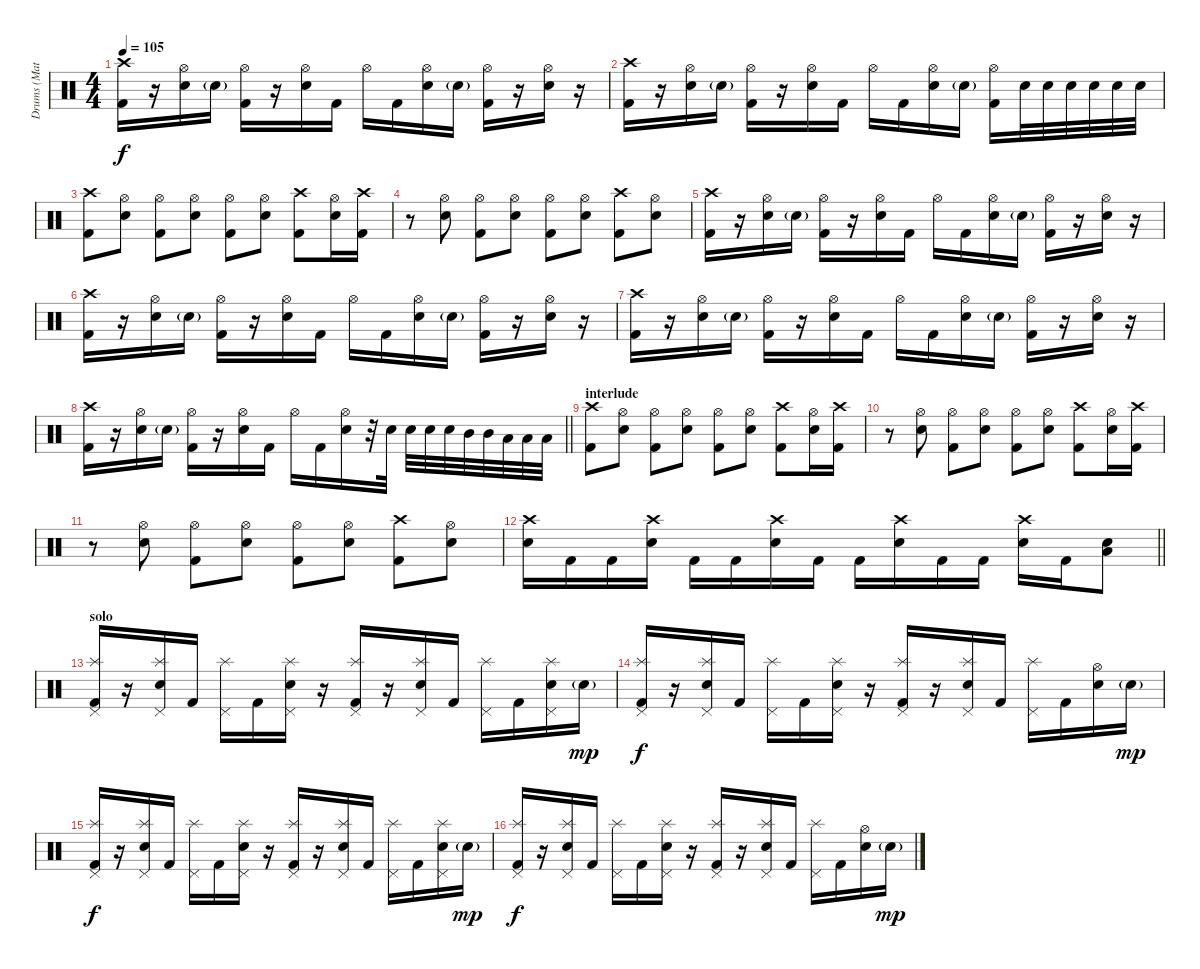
\track ("Drums (Matt Sorum)" "Drums (Mat") {instrument percussion}
\staff {score}
\articulation defaults
\ts (4 4)
\tempo 105
\clef neutral
\ks c
("Crash high (hit)" "Kick (hit) 2").16{dy f} r.16 ("Hi-Hat (open)" "Electric Snare (hit)").16 "Electric Snare (hit)"{g}.16 ("Hi-Hat (open)" "Kick (hit) 2").16 r.16 ("Hi-Hat (open)" "Electric Snare (hit)").16 "Kick (hit) 2".16 "Hi-Hat (open)".16 "Kick (hit) 2".16 ("Hi-Hat (open)" "Electric Snare (hit)").16 "Electric Snare (hit)"{g}.16 ("Hi-Hat (open)" "Kick (hit) 2").16 r.16 ("Hi-Hat (open)" "Electric Snare (hit)").16 r.16 |
("Crash high (hit)" "Kick (hit) 2").16 r.16 ("Hi-Hat (open)" "Electric Snare (hit)").16 "Electric Snare (hit)"{g}.16 ("Hi-Hat (open)" "Kick (hit) 2").16 r.16 ("Hi-Hat (open)" "Electric Snare (hit)").16 "Kick (hit) 2".16 "Hi-Hat (open)".16 "Kick (hit) 2".16 ("Hi-Hat (open)" "Electric Snare (hit)").16 "Electric Snare (hit)"{g}.16 ("Hi-Hat (open)" "Kick (hit) 2").16 "Electric Snare (hit)".32 "Electric Snare (hit)".32 "Electric Snare (hit)".32 "Electric Snare (hit)".32 "Electric Snare (hit)".32 "Electric Snare (hit)".32 |
("Crash high (hit)" "Kick (hit) 2").8 ("Hi-Hat (open)" "Electric Snare (hit)").8 ("Hi-Hat (open)" "Kick (hit) 2").8 ("Hi-Hat (open)" "Electric Snare (hit)").8 ("Hi-Hat (open)" "Kick (hit) 2").8 ("Hi-Hat (open)" "Electric Snare (hit)").8 ("Crash high (hit)" "Kick (hit) 2").8 ("Hi-Hat (open)" "Electric Snare (hit)").16 ("Crash high (hit)" "Kick (hit) 2").16 |
r.8 ("Hi-Hat (open)" "Electric Snare (hit)").8 ("Hi-Hat (open)" "Kick (hit) 2").8 ("Hi-Hat (open)" "Electric Snare (hit)").8 ("Hi-Hat (open)" "Kick (hit) 2").8 ("Hi-Hat (open)" "Electric Snare (hit)").8 ("Crash high (hit)" "Kick (hit) 2").8 ("Hi-Hat (open)" "Electric Snare (hit)").8 |
("Crash high (hit)" "Kick (hit) 2").16 r.16 ("Hi-Hat (open)" "Electric Snare (hit)").16 "Electric Snare (hit)"{g}.16 ("Hi-Hat (open)" "Kick (hit) 2").16 r.16 ("Hi-Hat (open)" "Electric Snare (hit)").16 "Kick (hit) 2".16 "Hi-Hat (open)".16 "Kick (hit) 2".16 ("Hi-Hat (open)" "Electric Snare (hit)").16 "Electric Snare (hit)"{g}.16 ("Hi-Hat (open)" "Kick (hit) 2").16 r.16 ("Hi-Hat (open)" "Electric Snare (hit)").16 r.16 |
("Crash high (hit)" "Kick (hit) 2").16 r.16 ("Hi-Hat (open)" "Electric Snare (hit)").16 "Electric Snare (hit)"{g}.16 ("Hi-Hat (open)" "Kick (hit) 2").16 r.16 ("Hi-Hat (open)" "Electric Snare (hit)").16 "Kick (hit) 2".16 "Hi-Hat (open)".16 "Kick (hit) 2".16 ("Hi-Hat (open)" "Electric Snare (hit)").16 "Electric Snare (hit)"{g}.16 ("Hi-Hat (open)" "Kick (hit) 2").16 r.16 ("Hi-Hat (open)" "Electric Snare (hit)").16 r.16 |
("Crash high (hit)" "Kick (hit) 2").16 r.16 ("Hi-Hat (open)" "Electric Snare (hit)").16 "Electric Snare (hit)"{g}.16 ("Hi-Hat (open)" "Kick (hit) 2").16 r.16 ("Hi-Hat (open)" "Electric Snare (hit)").16 "Kick (hit) 2".16 "Hi-Hat (open)".16 "Kick (hit) 2".16 ("Hi-Hat (open)" "Electric Snare (hit)").16 "Electric Snare (hit)"{g}.16 ("Hi-Hat (open)" "Kick (hit) 2").16 r.16 ("Hi-Hat (open)" "Electric Snare (hit)").16 r.16 |
\barLineRight lightlight
("Crash high (hit)" "Kick (hit) 2").16 r.16 ("Hi-Hat (open)" "Electric Snare (hit)").16 "Electric Snare (hit)"{g}.16 ("Hi-Hat (open)" "Kick (hit) 2").16 r.16 ("Hi-Hat (open)" "Electric Snare (hit)").16 "Kick (hit) 2".16 "Hi-Hat (open)".16 "Kick (hit) 2".16 ("Hi-Hat (open)" "Electric Snare (hit)").16 r.32 "Electric Snare (hit)".32 "Electric Snare (hit)".32 "Electric Snare (hit)".32 "Electric Snare (hit)".32 "Mid Tom (hit)".32 "Mid Tom (hit)".32 "Low Tom (hit)".32 "Low Tom (hit)".32 "Low Floor Tom (hit)".32 |
\section ("" "interlude")
("Crash high (hit)" "Kick (hit) 2").8 ("Hi-Hat (open)" "Electric Snare (hit)").8 ("Hi-Hat (open)" "Kick (hit) 2").8 ("Hi-Hat (open)" "Electric Snare (hit)").8 ("Hi-Hat (open)" "Kick (hit) 2").8 ("Hi-Hat (open)" "Electric Snare (hit)").8 ("Crash high (hit)" "Kick (hit) 2").8 ("Hi-Hat (open)" "Electric Snare (hit)").16 ("Crash high (hit)" "Kick (hit) 2").16 |
r.8 ("Hi-Hat (open)" "Electric Snare (hit)").8 ("Hi-Hat (open)" "Kick (hit) 2").8 ("Hi-Hat (open)" "Electric Snare (hit)").8 ("Hi-Hat (open)" "Kick (hit) 2").8 ("Hi-Hat (open)" "Electric Snare (hit)").8 ("Crash high (hit)" "Kick (hit) 2").8 ("Hi-Hat (open)" "Electric Snare (hit)").16 ("Crash high (hit)" "Kick (hit) 2").16 |
r.8 ("Hi-Hat (open)" "Electric Snare (hit)").8 ("Hi-Hat (open)" "Kick (hit) 2").8 ("Hi-Hat (open)" "Electric Snare (hit)").8 ("Hi-Hat (open)" "Kick (hit) 2").8 ("Hi-Hat (open)" "Electric Snare (hit)").8 ("Crash high (hit)" "Kick (hit) 2").8 ("Hi-Hat (open)" "Electric Snare (hit)").8 |
\barLineRight lightlight
("Crash high (hit)" "Electric Snare (hit)").16 "Kick (hit) 2".16 "Kick (hit) 2".16 ("Crash high (hit)" "Electric Snare (hit)").16 "Kick (hit) 2".16 "Kick (hit) 2".16 ("Crash high (hit)" "Electric Snare (hit)").16 "Kick (hit) 2".16 "Kick (hit) 2".16 ("Crash high (hit)" "Electric Snare (hit)").16 "Kick (hit) 2".16 "Kick (hit) 2".16 ("Crash high (hit)" "Electric Snare (hit)").16 "Kick (hit) 2".16 ("Low Floor Tom (hit)" "Electric Snare (hit)").8 |
\section ("" "solo")
("Splash (hit)" "Pedal Hi-Hat (hit)" "Kick (hit) 2").16 r.16 ("Splash (hit)" "Pedal Hi-Hat (hit)" "Electric Snare (hit)").16 "Kick (hit) 2".16 ("Splash (hit)" "Pedal Hi-Hat (hit)").16 "Kick (hit) 2".16 ("Splash (hit)" "Pedal Hi-Hat (hit)" "Electric Snare (hit)").16 r.16 ("Splash (hit)" "Pedal Hi-Hat (hit)" "Kick (hit) 2").16 r.16 ("Splash (hit)" "Pedal Hi-Hat (hit)" "Electric Snare (hit)").16 "Kick (hit) 2".16 ("Splash (hit)" "Pedal Hi-Hat (hit)").16 "Kick (hit) 2".16 ("Splash (hit)" "Pedal Hi-Hat (hit)" "Electric Snare (hit)").16 "Electric Snare (hit)"{g}.16{dy mp} |
("Splash (hit)" "Pedal Hi-Hat (hit)" "Kick (hit) 2").16{dy f} r.16 ("Splash (hit)" "Pedal Hi-Hat (hit)" "Electric Snare (hit)").16 "Kick (hit) 2".16 ("Splash (hit)" "Pedal Hi-Hat (hit)").16 "Kick (hit) 2".16 ("Splash (hit)" "Pedal Hi-Hat (hit)" "Electric Snare (hit)").16 r.16 ("Splash (hit)" "Pedal Hi-Hat (hit)" "Kick (hit) 2").16 r.16 ("Splash (hit)" "Pedal Hi-Hat (hit)" "Electric Snare (hit)").16 "Kick (hit) 2".16 ("Splash (hit)" "Pedal Hi-Hat (hit)").16 "Kick (hit) 2".16 ("Hi-Hat (open)" "Electric Snare (hit)").16 "Electric Snare (hit)"{g}.16{dy mp} |
("Splash (hit)" "Pedal Hi-Hat (hit)" "Kick (hit) 2").16{dy f} r.16 ("Splash (hit)" "Pedal Hi-Hat (hit)" "Electric Snare (hit)").16 "Kick (hit) 2".16 ("Splash (hit)" "Pedal Hi-Hat (hit)").16 "Kick (hit) 2".16 ("Splash (hit)" "Pedal Hi-Hat (hit)" "Electric Snare (hit)").16 r.16 ("Splash (hit)" "Pedal Hi-Hat (hit)" "Kick (hit) 2").16 r.16 ("Splash (hit)" "Pedal Hi-Hat (hit)" "Electric Snare (hit)").16 "Kick (hit) 2".16 ("Splash (hit)" "Pedal Hi-Hat (hit)").16 "Kick (hit) 2".16 ("Splash (hit)" "Pedal Hi-Hat (hit)" "Electric Snare (hit)").16 "Electric Snare (hit)"{g}.16{dy mp} |
("Splash (hit)" "Pedal Hi-Hat (hit)" "Kick (hit) 2").16{dy f} r.16 ("Splash (hit)" "Pedal Hi-Hat (hit)" "Electric Snare (hit)").16 "Kick (hit) 2".16 ("Splash (hit)" "Pedal Hi-Hat (hit)").16 "Kick (hit) 2".16 ("Splash (hit)" "Pedal Hi-Hat (hit)" "Electric Snare (hit)").16 r.16 ("Splash (hit)" "Pedal Hi-Hat (hit)" "Kick (hit) 2").16 r.16 ("Splash (hit)" "Pedal Hi-Hat (hit)" "Electric Snare (hit)").16 "Kick (hit) 2".16 ("Splash (hit)" "Pedal Hi-Hat (hit)").16 "Kick (hit) 2".16 ("Hi-Hat (open)" "Electric Snare (hit)").16 "Electric Snare (hit)"{g}.16{dy mp}
